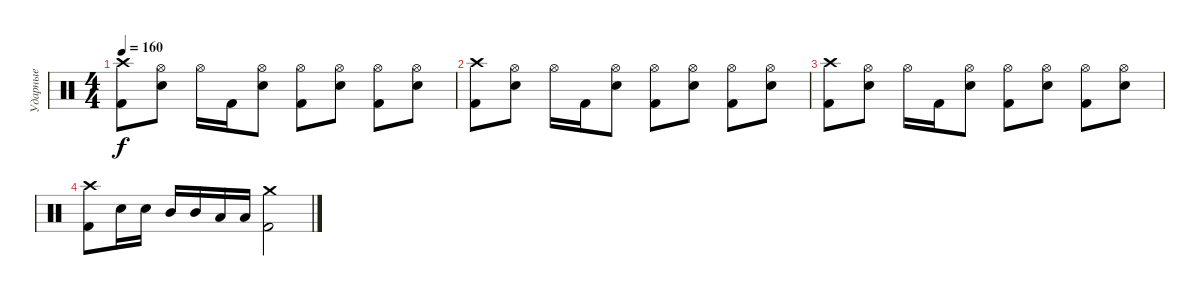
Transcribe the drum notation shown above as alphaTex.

\track ("Ударные" "Ударные") {instrument percussion}
\staff {score}
\articulation defaults
\ts (4 4)
\tempo 160
\clef neutral
\ks c
("Kick (hit) 2" "Crash high (hit)").8{dy f} ("Electric Snare (hit)" "Hi-Hat (open)").8 "Hi-Hat (open)".16 "Kick (hit) 2".16 ("Electric Snare (hit)" "Hi-Hat (open)").8 ("Kick (hit) 2" "Hi-Hat (open)").8 ("Electric Snare (hit)" "Hi-Hat (open)").8 ("Kick (hit) 2" "Hi-Hat (open)").8 ("Electric Snare (hit)" "Hi-Hat (open)").8 |
("Kick (hit) 2" "Crash high (hit)").8 ("Electric Snare (hit)" "Hi-Hat (open)").8 "Hi-Hat (open)".16 "Kick (hit) 2".16 ("Electric Snare (hit)" "Hi-Hat (open)").8 ("Kick (hit) 2" "Hi-Hat (open)").8 ("Electric Snare (hit)" "Hi-Hat (open)").8 ("Kick (hit) 2" "Hi-Hat (open)").8 ("Electric Snare (hit)" "Hi-Hat (open)").8 |
("Kick (hit) 2" "Crash high (hit)").8 ("Electric Snare (hit)" "Hi-Hat (open)").8 "Hi-Hat (open)".16 "Kick (hit) 2".16 ("Electric Snare (hit)" "Hi-Hat (open)").8 ("Kick (hit) 2" "Hi-Hat (open)").8 ("Electric Snare (hit)" "Hi-Hat (open)").8 ("Kick (hit) 2" "Hi-Hat (open)").8 ("Electric Snare (hit)" "Hi-Hat (open)").8 |
("Kick (hit) 2" "Crash high (hit)").8 "Electric Snare (hit)".16 "Electric Snare (hit)".16 "Mid Tom (hit)".16 "Mid Tom (hit)".16 "Low Tom (hit)".16 "Low Tom (hit)".16 ("Kick (hit) 2" "Crash medium (hit)").2
